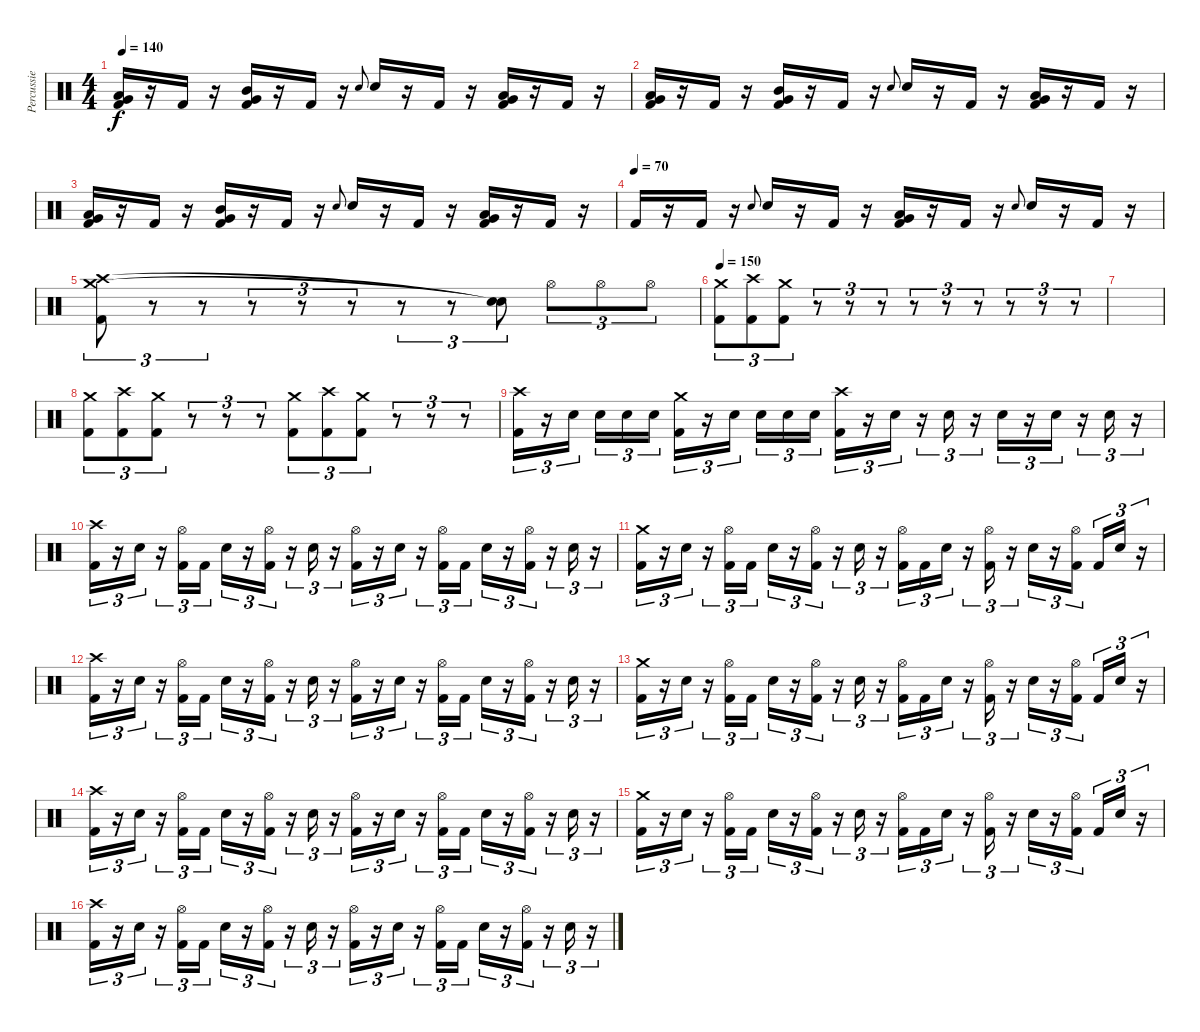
\track ("Percussie" "Percussie") {instrument percussion}
\staff {score}
\articulation defaults
\ts (4 4)
\tempo 140
\clef neutral
\ks c
("Low Floor Tom (hit)" "Very Low Tom (hit)" "Kick (hit) 2").16{dy f} r.16 "Kick (hit) 2".16 r.16 ("Mid Tom (hit)" "Very Low Tom (hit)" "Kick (hit) 2").16 r.16 "Kick (hit) 2".16 r.16 "Electric Snare (hit)".8{gr onbeat} "Electric Snare (hit)".16 r.16 "Kick (hit) 2".16 r.16 ("Low Floor Tom (hit)" "Very Low Tom (hit)" "Kick (hit) 2").16 r.16 "Kick (hit) 2".16 r.16 |
("Low Floor Tom (hit)" "Very Low Tom (hit)" "Kick (hit) 2").16 r.16 "Kick (hit) 2".16 r.16 ("Mid Tom (hit)" "Very Low Tom (hit)" "Kick (hit) 2").16 r.16 "Kick (hit) 2".16 r.16 "Electric Snare (hit)".8{gr onbeat} "Electric Snare (hit)".16 r.16 "Kick (hit) 2".16 r.16 ("Low Floor Tom (hit)" "Very Low Tom (hit)" "Kick (hit) 2").16 r.16 "Kick (hit) 2".16 r.16 |
("Low Floor Tom (hit)" "Very Low Tom (hit)" "Kick (hit) 2").16 r.16 "Kick (hit) 2".16 r.16 ("Mid Tom (hit)" "Very Low Tom (hit)" "Kick (hit) 2").16 r.16 "Kick (hit) 2".16 r.16 "Electric Snare (hit)".8{gr onbeat} "Electric Snare (hit)".16 r.16 "Kick (hit) 2".16 r.16 ("Low Floor Tom (hit)" "Very Low Tom (hit)" "Kick (hit) 2").16 r.16 "Kick (hit) 2".16 r.16 |
\tempo (70)
"Kick (hit) 2".16 r.16 "Kick (hit) 2".16 r.16 "Electric Snare (hit)".8{gr onbeat} "Electric Snare (hit)".16 r.16 "Kick (hit) 2".16 r.16 ("Low Floor Tom (hit)" "Very Low Tom (hit)" "Kick (hit) 2").16 r.16 "Kick (hit) 2".16 r.16 "Electric Snare (hit)".8{gr onbeat} "Electric Snare (hit)".16 r.16 "Kick (hit) 2".16 r.16 |
("Crash high (hit)" "Crash medium (hit)" "Kick (hit) 2").8{tu (3 2)} r.8{tu (3 2)} r.8{tu (3 2)} r.8{tu (3 2)} r.8{tu (3 2)} r.8{tu (3 2)} r.8{tu (3 2)} r.8{tu (3 2)} ("Snare (hit)"{t} "Snare (hit)"{t}).8{tu (3 2)} "Hi-Hat (open)".8{tu (3 2)} "Hi-Hat (open)".8{tu (3 2)} "Hi-Hat (open)".8{tu (3 2)} |
\tempo 150
("Crash medium (hit)" "Kick (hit) 2").8{tu (3 2)} ("Crash high (hit)" "Kick (hit) 2").8{tu (3 2)} ("Crash medium (hit)" "Kick (hit) 2").8{tu (3 2)} r.8{tu (3 2)} r.8{tu (3 2)} r.8{tu (3 2)} r.8{tu (3 2)} r.8{tu (3 2)} r.8{tu (3 2)} r.8{tu (3 2)} r.8{tu (3 2)} r.8{tu (3 2)} |
|
("Crash medium (hit)" "Kick (hit) 2").8{tu (3 2)} ("Crash high (hit)" "Kick (hit) 2").8{tu (3 2)} ("Crash medium (hit)" "Kick (hit) 2").8{tu (3 2)} r.8{tu (3 2)} r.8{tu (3 2)} r.8{tu (3 2)} ("Crash medium (hit)" "Kick (hit) 2").8{tu (3 2)} ("Crash high (hit)" "Kick (hit) 2").8{tu (3 2)} ("Crash medium (hit)" "Kick (hit) 2").8{tu (3 2)} r.8{tu (3 2)} r.8{tu (3 2)} r.8{tu (3 2)} |
("Crash high (hit)" "Kick (hit) 2").16{tu (3 2)} r.16{tu (3 2)} "Electric Snare (hit)".16{tu (3 2) beam splitsecondary} "Electric Snare (hit)".16{tu (3 2)} "Electric Snare (hit)".16{tu (3 2)} "Electric Snare (hit)".16{tu (3 2)} ("Crash medium (hit)" "Kick (hit) 2").16{tu (3 2)} r.16{tu (3 2)} "Electric Snare (hit)".16{tu (3 2) beam splitsecondary} "Electric Snare (hit)".16{tu (3 2)} "Electric Snare (hit)".16{tu (3 2)} "Electric Snare (hit)".16{tu (3 2)} ("Crash high (hit)" "Kick (hit) 2").16{tu (3 2)} r.16{tu (3 2)} "Electric Snare (hit)".16{tu (3 2)} r.16{tu (3 2)} "Electric Snare (hit)".16{tu (3 2)} r.16{tu (3 2)} "Electric Snare (hit)".16{tu (3 2)} r.16{tu (3 2)} "Electric Snare (hit)".16{tu (3 2)} r.16{tu (3 2)} "Electric Snare (hit)".16{tu (3 2)} r.16{tu (3 2)} |
("Crash high (hit)" "Kick (hit) 2").16{tu (3 2)} r.16{tu (3 2)} "Electric Snare (hit)".16{tu (3 2)} r.16{tu (3 2)} ("Hi-Hat (open)" "Kick (hit) 2").16{tu (3 2)} "Kick (hit) 2".16{tu (3 2)} "Electric Snare (hit)".16{tu (3 2)} r.16{tu (3 2)} ("Hi-Hat (open)" "Kick (hit) 2").16{tu (3 2)} r.16{tu (3 2)} "Electric Snare (hit)".16{tu (3 2)} r.16{tu (3 2)} ("Hi-Hat (open)" "Kick (hit) 2").16{tu (3 2)} r.16{tu (3 2)} "Electric Snare (hit)".16{tu (3 2)} r.16{tu (3 2)} ("Hi-Hat (open)" "Kick (hit) 2").16{tu (3 2)} "Kick (hit) 2".16{tu (3 2)} "Electric Snare (hit)".16{tu (3 2)} r.16{tu (3 2)} ("Hi-Hat (open)" "Kick (hit) 2").16{tu (3 2)} r.16{tu (3 2)} "Electric Snare (hit)".16{tu (3 2)} r.16{tu (3 2)} |
("Crash medium (hit)" "Kick (hit) 2").16{tu (3 2)} r.16{tu (3 2)} "Electric Snare (hit)".16{tu (3 2)} r.16{tu (3 2)} ("Hi-Hat (open)" "Kick (hit) 2").16{tu (3 2)} "Kick (hit) 2".16{tu (3 2)} "Electric Snare (hit)".16{tu (3 2)} r.16{tu (3 2)} ("Hi-Hat (open)" "Kick (hit) 2").16{tu (3 2)} r.16{tu (3 2)} "Electric Snare (hit)".16{tu (3 2)} r.16{tu (3 2)} ("Hi-Hat (open)" "Kick (hit) 2").16{tu (3 2)} "Kick (hit) 2".16{tu (3 2)} "Electric Snare (hit)".16{tu (3 2)} r.16{tu (3 2)} ("Hi-Hat (open)" "Kick (hit) 2").16{tu (3 2)} r.16{tu (3 2)} "Electric Snare (hit)".16{tu (3 2)} r.16{tu (3 2)} ("Hi-Hat (open)" "Kick (hit) 2").16{tu (3 2) beam splitsecondary} "Kick (hit) 2".16{tu (3 2)} "Electric Snare (hit)".16{tu (3 2)} r.16{tu (3 2)} |
("Crash high (hit)" "Kick (hit) 2").16{tu (3 2)} r.16{tu (3 2)} "Electric Snare (hit)".16{tu (3 2)} r.16{tu (3 2)} ("Hi-Hat (open)" "Kick (hit) 2").16{tu (3 2)} "Kick (hit) 2".16{tu (3 2)} "Electric Snare (hit)".16{tu (3 2)} r.16{tu (3 2)} ("Hi-Hat (open)" "Kick (hit) 2").16{tu (3 2)} r.16{tu (3 2)} "Electric Snare (hit)".16{tu (3 2)} r.16{tu (3 2)} ("Hi-Hat (open)" "Kick (hit) 2").16{tu (3 2)} r.16{tu (3 2)} "Electric Snare (hit)".16{tu (3 2)} r.16{tu (3 2)} ("Hi-Hat (open)" "Kick (hit) 2").16{tu (3 2)} "Kick (hit) 2".16{tu (3 2)} "Electric Snare (hit)".16{tu (3 2)} r.16{tu (3 2)} ("Hi-Hat (open)" "Kick (hit) 2").16{tu (3 2)} r.16{tu (3 2)} "Electric Snare (hit)".16{tu (3 2)} r.16{tu (3 2)} |
("Crash medium (hit)" "Kick (hit) 2").16{tu (3 2)} r.16{tu (3 2)} "Electric Snare (hit)".16{tu (3 2)} r.16{tu (3 2)} ("Hi-Hat (open)" "Kick (hit) 2").16{tu (3 2)} "Kick (hit) 2".16{tu (3 2)} "Electric Snare (hit)".16{tu (3 2)} r.16{tu (3 2)} ("Hi-Hat (open)" "Kick (hit) 2").16{tu (3 2)} r.16{tu (3 2)} "Electric Snare (hit)".16{tu (3 2)} r.16{tu (3 2)} ("Hi-Hat (open)" "Kick (hit) 2").16{tu (3 2)} "Kick (hit) 2".16{tu (3 2)} "Electric Snare (hit)".16{tu (3 2)} r.16{tu (3 2)} ("Hi-Hat (open)" "Kick (hit) 2").16{tu (3 2)} r.16{tu (3 2)} "Electric Snare (hit)".16{tu (3 2)} r.16{tu (3 2)} ("Hi-Hat (open)" "Kick (hit) 2").16{tu (3 2) beam splitsecondary} "Kick (hit) 2".16{tu (3 2)} "Electric Snare (hit)".16{tu (3 2)} r.16{tu (3 2)} |
("Crash high (hit)" "Kick (hit) 2").16{tu (3 2)} r.16{tu (3 2)} "Electric Snare (hit)".16{tu (3 2)} r.16{tu (3 2)} ("Hi-Hat (open)" "Kick (hit) 2").16{tu (3 2)} "Kick (hit) 2".16{tu (3 2)} "Electric Snare (hit)".16{tu (3 2)} r.16{tu (3 2)} ("Hi-Hat (open)" "Kick (hit) 2").16{tu (3 2)} r.16{tu (3 2)} "Electric Snare (hit)".16{tu (3 2)} r.16{tu (3 2)} ("Hi-Hat (open)" "Kick (hit) 2").16{tu (3 2)} r.16{tu (3 2)} "Electric Snare (hit)".16{tu (3 2)} r.16{tu (3 2)} ("Hi-Hat (open)" "Kick (hit) 2").16{tu (3 2)} "Kick (hit) 2".16{tu (3 2)} "Electric Snare (hit)".16{tu (3 2)} r.16{tu (3 2)} ("Hi-Hat (open)" "Kick (hit) 2").16{tu (3 2)} r.16{tu (3 2)} "Electric Snare (hit)".16{tu (3 2)} r.16{tu (3 2)} |
("Crash medium (hit)" "Kick (hit) 2").16{tu (3 2)} r.16{tu (3 2)} "Electric Snare (hit)".16{tu (3 2)} r.16{tu (3 2)} ("Hi-Hat (open)" "Kick (hit) 2").16{tu (3 2)} "Kick (hit) 2".16{tu (3 2)} "Electric Snare (hit)".16{tu (3 2)} r.16{tu (3 2)} ("Hi-Hat (open)" "Kick (hit) 2").16{tu (3 2)} r.16{tu (3 2)} "Electric Snare (hit)".16{tu (3 2)} r.16{tu (3 2)} ("Hi-Hat (open)" "Kick (hit) 2").16{tu (3 2)} "Kick (hit) 2".16{tu (3 2)} "Electric Snare (hit)".16{tu (3 2)} r.16{tu (3 2)} ("Hi-Hat (open)" "Kick (hit) 2").16{tu (3 2)} r.16{tu (3 2)} "Electric Snare (hit)".16{tu (3 2)} r.16{tu (3 2)} ("Hi-Hat (open)" "Kick (hit) 2").16{tu (3 2) beam splitsecondary} "Kick (hit) 2".16{tu (3 2)} "Electric Snare (hit)".16{tu (3 2)} r.16{tu (3 2)} |
("Crash high (hit)" "Kick (hit) 2").16{tu (3 2)} r.16{tu (3 2)} "Electric Snare (hit)".16{tu (3 2)} r.16{tu (3 2)} ("Hi-Hat (open)" "Kick (hit) 2").16{tu (3 2)} "Kick (hit) 2".16{tu (3 2)} "Electric Snare (hit)".16{tu (3 2)} r.16{tu (3 2)} ("Hi-Hat (open)" "Kick (hit) 2").16{tu (3 2)} r.16{tu (3 2)} "Electric Snare (hit)".16{tu (3 2)} r.16{tu (3 2)} ("Hi-Hat (open)" "Kick (hit) 2").16{tu (3 2)} r.16{tu (3 2)} "Electric Snare (hit)".16{tu (3 2)} r.16{tu (3 2)} ("Hi-Hat (open)" "Kick (hit) 2").16{tu (3 2)} "Kick (hit) 2".16{tu (3 2)} "Electric Snare (hit)".16{tu (3 2)} r.16{tu (3 2)} ("Hi-Hat (open)" "Kick (hit) 2").16{tu (3 2)} r.16{tu (3 2)} "Electric Snare (hit)".16{tu (3 2)} r.16{tu (3 2)}
